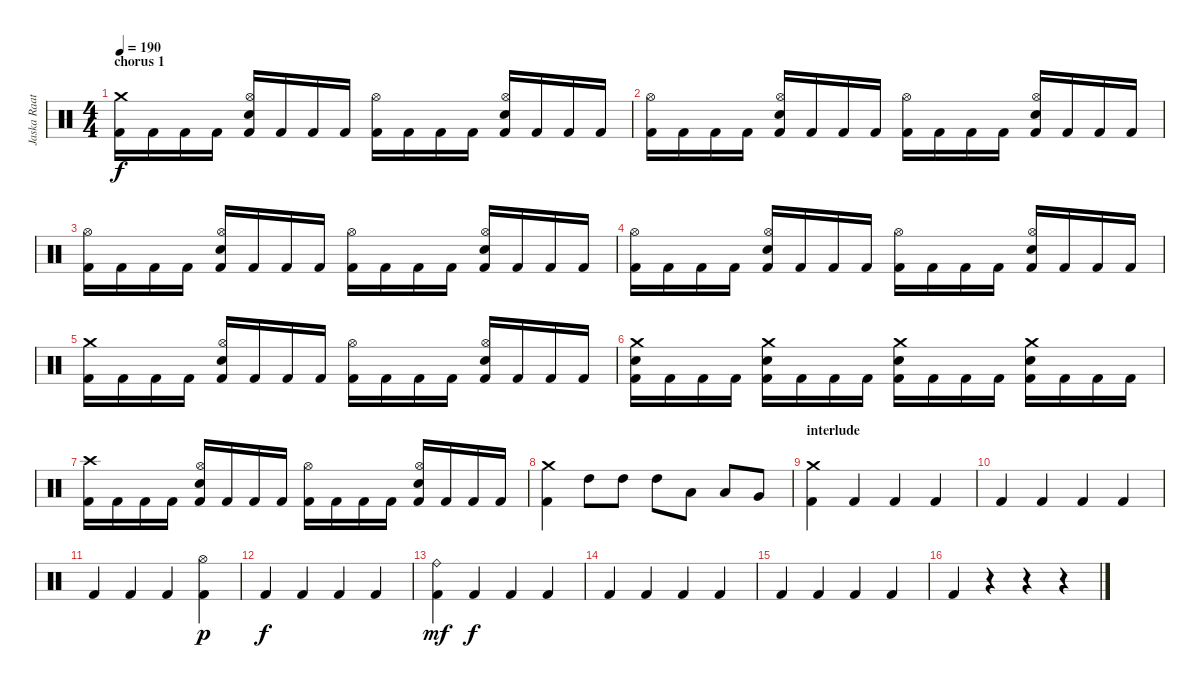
\track ("Jaska Raatikainen" "Jaska Raat") {instrument percussion}
\staff {score}
\articulation defaults
\ts (4 4)
\section ("" "chorus 1")
\tempo 190
\clef neutral
\ks c
("Crash medium (hit)" "Kick (hit) 2").16{dy f} "Kick (hit) 2".16 "Kick (hit) 2".16 "Kick (hit) 2".16 ("Hi-Hat (open)" "Snare (hit) 2" "Kick (hit) 2").16 "Kick (hit) 2".16 "Kick (hit) 2".16 "Kick (hit) 2".16 ("Hi-Hat (open)" "Kick (hit) 2").16 "Kick (hit) 2".16 "Kick (hit) 2".16 "Kick (hit) 2".16 ("Hi-Hat (open)" "Snare (hit) 2" "Kick (hit) 2").16 "Kick (hit) 2".16 "Kick (hit) 2".16 "Kick (hit) 2".16 |
("Hi-Hat (open)" "Kick (hit) 2").16 "Kick (hit) 2".16 "Kick (hit) 2".16 "Kick (hit) 2".16 ("Hi-Hat (open)" "Snare (hit) 2" "Kick (hit) 2").16 "Kick (hit) 2".16 "Kick (hit) 2".16 "Kick (hit) 2".16 ("Hi-Hat (open)" "Kick (hit) 2").16 "Kick (hit) 2".16 "Kick (hit) 2".16 "Kick (hit) 2".16 ("Hi-Hat (open)" "Snare (hit) 2" "Kick (hit) 2").16 "Kick (hit) 2".16 "Kick (hit) 2".16 "Kick (hit) 2".16 |
("Hi-Hat (open)" "Kick (hit) 2").16 "Kick (hit) 2".16 "Kick (hit) 2".16 "Kick (hit) 2".16 ("Hi-Hat (open)" "Snare (hit) 2" "Kick (hit) 2").16 "Kick (hit) 2".16 "Kick (hit) 2".16 "Kick (hit) 2".16 ("Hi-Hat (open)" "Kick (hit) 2").16 "Kick (hit) 2".16 "Kick (hit) 2".16 "Kick (hit) 2".16 ("Hi-Hat (open)" "Snare (hit) 2" "Kick (hit) 2").16 "Kick (hit) 2".16 "Kick (hit) 2".16 "Kick (hit) 2".16 |
("Hi-Hat (open)" "Kick (hit) 2").16 "Kick (hit) 2".16 "Kick (hit) 2".16 "Kick (hit) 2".16 ("Hi-Hat (open)" "Snare (hit) 2" "Kick (hit) 2").16 "Kick (hit) 2".16 "Kick (hit) 2".16 "Kick (hit) 2".16 ("Hi-Hat (open)" "Kick (hit) 2").16 "Kick (hit) 2".16 "Kick (hit) 2".16 "Kick (hit) 2".16 ("Hi-Hat (open)" "Snare (hit) 2" "Kick (hit) 2").16 "Kick (hit) 2".16 "Kick (hit) 2".16 "Kick (hit) 2".16 |
("Crash medium (hit)" "Kick (hit) 2").16 "Kick (hit) 2".16 "Kick (hit) 2".16 "Kick (hit) 2".16 ("Hi-Hat (open)" "Snare (hit) 2" "Kick (hit) 2").16 "Kick (hit) 2".16 "Kick (hit) 2".16 "Kick (hit) 2".16 ("Hi-Hat (open)" "Kick (hit) 2").16 "Kick (hit) 2".16 "Kick (hit) 2".16 "Kick (hit) 2".16 ("Hi-Hat (open)" "Snare (hit) 2" "Kick (hit) 2").16 "Kick (hit) 2".16 "Kick (hit) 2".16 "Kick (hit) 2".16 |
("Crash medium (hit)" "Snare (hit) 2" "Kick (hit) 2").16 "Kick (hit) 2".16 "Kick (hit) 2".16 "Kick (hit) 2".16 ("Crash medium (hit)" "Snare (hit) 2" "Kick (hit) 2").16 "Kick (hit) 2".16 "Kick (hit) 2".16 "Kick (hit) 2".16 ("Crash medium (hit)" "Snare (hit) 2" "Kick (hit) 2").16 "Kick (hit) 2".16 "Kick (hit) 2".16 "Kick (hit) 2".16 ("Crash medium (hit)" "Snare (hit) 2" "Kick (hit) 2").16 "Kick (hit) 2".16 "Kick (hit) 2".16 "Kick (hit) 2".16 |
("Crash high (hit)" "Kick (hit) 2").16 "Kick (hit) 2".16 "Kick (hit) 2".16 "Kick (hit) 2".16 ("Hi-Hat (open)" "Snare (hit) 2" "Kick (hit) 2").16 "Kick (hit) 2".16 "Kick (hit) 2".16 "Kick (hit) 2".16 ("Hi-Hat (open)" "Kick (hit) 2").16 "Kick (hit) 2".16 "Kick (hit) 2".16 "Kick (hit) 2".16 ("Hi-Hat (open)" "Snare (hit) 2" "Kick (hit) 2").16 "Kick (hit) 2".16 "Kick (hit) 2".16 "Kick (hit) 2".16 |
("Crash medium (hit)" "Kick (hit) 2").4 "High Tom (hit)".8 "High Tom (hit)".8 "High Tom (hit)".8 "Low Tom (hit)".8 "Low Tom (hit)".8 "Very Low Tom (hit)".8 |
\section ("" "interlude")
("Crash medium (hit)" "Kick (hit) 2").4 "Kick (hit) 2".4 "Kick (hit) 2".4 "Kick (hit) 2".4 |
"Kick (hit) 2".4 "Kick (hit) 2".4 "Kick (hit) 2".4 "Kick (hit) 2".4 |
"Kick (hit) 2".4 "Kick (hit) 2".4 "Kick (hit) 2".4 ("Hi-Hat (open)" "Kick (hit) 2").4{dy p} |
"Kick (hit) 2".4{dy f} "Kick (hit) 2".4 "Kick (hit) 2".4 "Kick (hit) 2".4 |
("Ride (bell)" "Kick (hit) 2").4{dy mf} "Kick (hit) 2".4{dy f} "Kick (hit) 2".4 "Kick (hit) 2".4 |
"Kick (hit) 2".4 "Kick (hit) 2".4 "Kick (hit) 2".4 "Kick (hit) 2".4 |
"Kick (hit) 2".4 "Kick (hit) 2".4 "Kick (hit) 2".4 "Kick (hit) 2".4 |
"Kick (hit) 2".4 r.4 r.4 r.4
